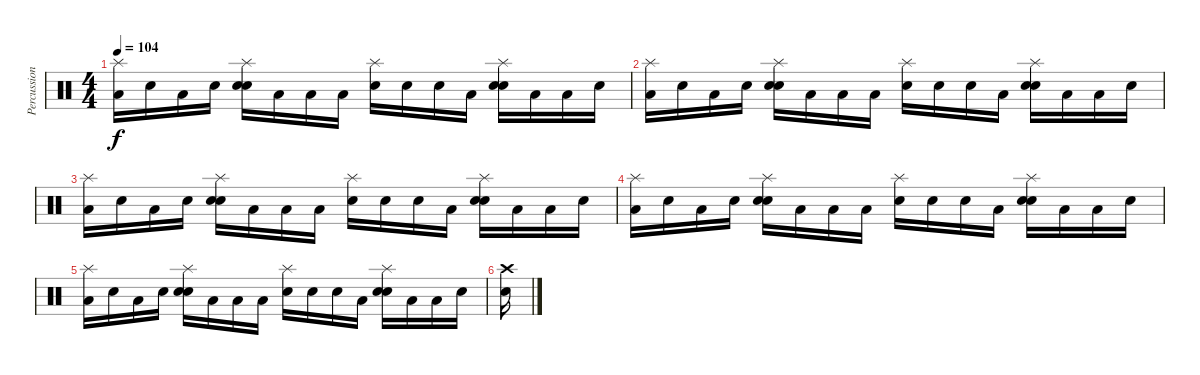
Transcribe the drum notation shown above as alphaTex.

\track ("Percussion" "Percussion") {instrument percussion}
\staff {score}
\articulation defaults
\ts (4 4)
\tempo 104
\clef neutral
\ks c
("Low Floor Tom (hit)" "Splash (hit)").16{dy f} "Snare (hit)".16 "Low Floor Tom (hit)".16 "Snare (hit)".16 ("Snare (hit)" "Splash (hit)" "Snare (hit) 2").16 "Low Floor Tom (hit)".16 "Low Floor Tom (hit)".16 "Low Floor Tom (hit)".16 ("Snare (hit)" "Splash (hit)").16 "Snare (hit)".16 "Snare (hit)".16 "Low Floor Tom (hit)".16 ("Snare (hit)" "Splash (hit)" "Snare (hit) 2").16 "Low Floor Tom (hit)".16 "Low Floor Tom (hit)".16 "Snare (hit)".16 |
("Low Floor Tom (hit)" "Splash (hit)").16 "Snare (hit)".16 "Low Floor Tom (hit)".16 "Snare (hit)".16 ("Snare (hit)" "Splash (hit)" "Snare (hit) 2").16 "Low Floor Tom (hit)".16 "Low Floor Tom (hit)".16 "Low Floor Tom (hit)".16 ("Snare (hit)" "Splash (hit)").16 "Snare (hit)".16 "Snare (hit)".16 "Low Floor Tom (hit)".16 ("Snare (hit)" "Splash (hit)" "Snare (hit) 2").16 "Low Floor Tom (hit)".16 "Low Floor Tom (hit)".16 "Snare (hit)".16 |
("Low Floor Tom (hit)" "Splash (hit)").16 "Snare (hit)".16 "Low Floor Tom (hit)".16 "Snare (hit)".16 ("Snare (hit)" "Splash (hit)" "Snare (hit) 2").16 "Low Floor Tom (hit)".16 "Low Floor Tom (hit)".16 "Low Floor Tom (hit)".16 ("Snare (hit)" "Splash (hit)").16 "Snare (hit)".16 "Snare (hit)".16 "Low Floor Tom (hit)".16 ("Snare (hit)" "Splash (hit)" "Snare (hit) 2").16 "Low Floor Tom (hit)".16 "Low Floor Tom (hit)".16 "Snare (hit)".16 |
("Low Floor Tom (hit)" "Splash (hit)").16 "Snare (hit)".16 "Low Floor Tom (hit)".16 "Snare (hit)".16 ("Snare (hit)" "Splash (hit)" "Snare (hit) 2").16 "Low Floor Tom (hit)".16 "Low Floor Tom (hit)".16 "Low Floor Tom (hit)".16 ("Snare (hit)" "Splash (hit)").16 "Snare (hit)".16 "Snare (hit)".16 "Low Floor Tom (hit)".16 ("Snare (hit)" "Splash (hit)" "Snare (hit) 2").16 "Low Floor Tom (hit)".16 "Low Floor Tom (hit)".16 "Snare (hit)".16 |
("Low Floor Tom (hit)" "Splash (hit)").16 "Snare (hit)".16 "Low Floor Tom (hit)".16 "Snare (hit)".16 ("Snare (hit)" "Splash (hit)" "Snare (hit) 2").16 "Low Floor Tom (hit)".16 "Low Floor Tom (hit)".16 "Low Floor Tom (hit)".16 ("Snare (hit)" "Splash (hit)").16 "Snare (hit)".16 "Snare (hit)".16 "Low Floor Tom (hit)".16 ("Snare (hit)" "Splash (hit)" "Snare (hit) 2").16 "Low Floor Tom (hit)".16 "Low Floor Tom (hit)".16 "Snare (hit)".16 |
("Snare (hit) 2" "Crash high (hit)").16
